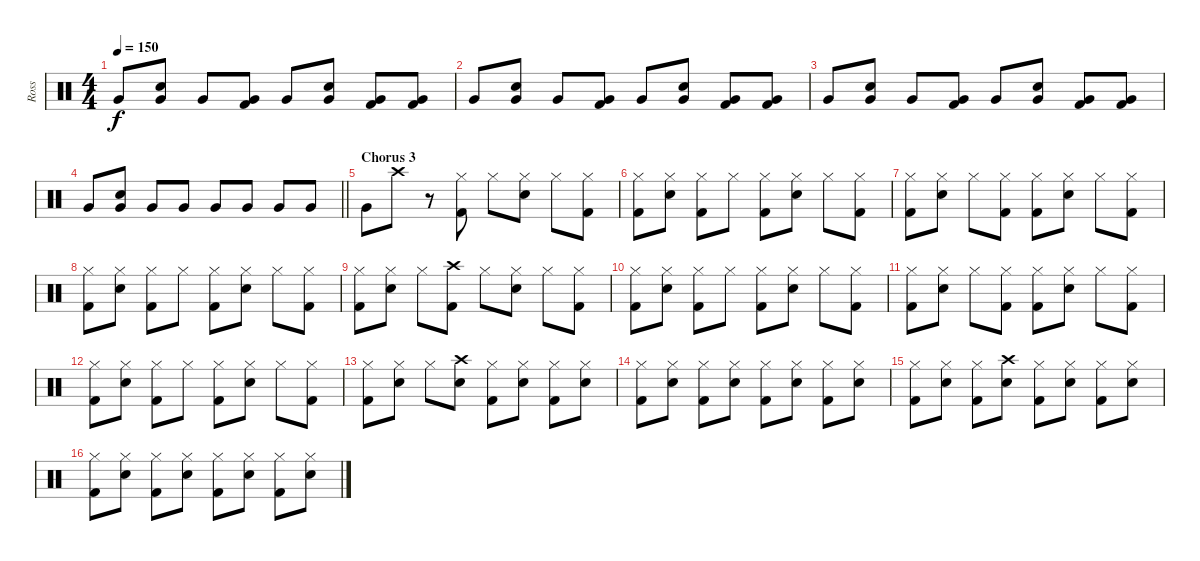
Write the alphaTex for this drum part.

\track ("Ross" "Ross") {instrument percussion}
\staff {score}
\articulation defaults
\ts (4 4)
\tempo 150
\clef neutral
\ks c "Very Low Tom (hit)".8{dy f}
("Very Low Tom (hit)" "Snare (hit) 2").8 "Very Low Tom (hit)".8 ("Very Low Tom (hit)" "Kick (hit) 2").8 "Very Low Tom (hit)".8 ("Very Low Tom (hit)" "Snare (hit) 2").8 ("Very Low Tom (hit)" "Kick (hit) 2").8 ("Very Low Tom (hit)" "Kick (hit) 2").8 |
"Very Low Tom (hit)".8 ("Very Low Tom (hit)" "Snare (hit) 2").8 "Very Low Tom (hit)".8 ("Very Low Tom (hit)" "Kick (hit) 2").8 "Very Low Tom (hit)".8 ("Very Low Tom (hit)" "Snare (hit) 2").8 ("Very Low Tom (hit)" "Kick (hit) 2").8 ("Very Low Tom (hit)" "Kick (hit) 2").8 |
"Very Low Tom (hit)".8 ("Very Low Tom (hit)" "Snare (hit) 2").8 "Very Low Tom (hit)".8 ("Very Low Tom (hit)" "Kick (hit) 2").8 "Very Low Tom (hit)".8 ("Very Low Tom (hit)" "Snare (hit) 2").8 ("Very Low Tom (hit)" "Kick (hit) 2").8 ("Very Low Tom (hit)" "Kick (hit) 2").8 |
\barLineRight lightlight "Very Low Tom (hit)".8
("Very Low Tom (hit)" "Snare (hit) 2").8 "Very Low Tom (hit)".8 "Very Low Tom (hit)".8 "Very Low Tom (hit)".8 "Very Low Tom (hit)".8 "Very Low Tom (hit)".8 "Very Low Tom (hit)".8 |
\section ("" "Chorus 3")
"Very Low Tom (hit)".8 "Crash high (hit)".8 r.8 ("Hi-Hat (closed)" "Kick (hit) 2").8 "Hi-Hat (closed)".8 ("Hi-Hat (closed)" "Snare (hit) 2").8 "Hi-Hat (closed)".8 ("Hi-Hat (closed)" "Kick (hit) 2").8 |
("Hi-Hat (closed)" "Kick (hit) 2").8 ("Hi-Hat (closed)" "Snare (hit) 2").8 ("Hi-Hat (closed)" "Kick (hit) 2").8 "Hi-Hat (closed)".8 ("Hi-Hat (closed)" "Kick (hit) 2").8 ("Hi-Hat (closed)" "Snare (hit) 2").8 "Hi-Hat (closed)".8 ("Hi-Hat (closed)" "Kick (hit) 2").8 |
("Hi-Hat (closed)" "Kick (hit) 2").8 ("Hi-Hat (closed)" "Snare (hit) 2").8 "Hi-Hat (closed)".8 ("Hi-Hat (closed)" "Kick (hit) 2").8 ("Hi-Hat (closed)" "Kick (hit) 2").8 ("Hi-Hat (closed)" "Snare (hit) 2").8 "Hi-Hat (closed)".8 ("Hi-Hat (closed)" "Kick (hit) 2").8 |
("Hi-Hat (closed)" "Kick (hit) 2").8 ("Hi-Hat (closed)" "Snare (hit) 2").8 ("Hi-Hat (closed)" "Kick (hit) 2").8 "Hi-Hat (closed)".8 ("Hi-Hat (closed)" "Kick (hit) 2").8 ("Hi-Hat (closed)" "Snare (hit) 2").8 "Hi-Hat (closed)".8 ("Hi-Hat (closed)" "Kick (hit) 2").8 |
("Hi-Hat (closed)" "Kick (hit) 2").8 ("Hi-Hat (closed)" "Snare (hit) 2").8 "Hi-Hat (closed)".8 ("Crash high (hit)" "Kick (hit) 2").8 "Hi-Hat (closed)".8 ("Hi-Hat (closed)" "Snare (hit) 2").8 "Hi-Hat (closed)".8 ("Hi-Hat (closed)" "Kick (hit) 2").8 |
("Hi-Hat (closed)" "Kick (hit) 2").8 ("Hi-Hat (closed)" "Snare (hit) 2").8 ("Hi-Hat (closed)" "Kick (hit) 2").8 "Hi-Hat (closed)".8 ("Hi-Hat (closed)" "Kick (hit) 2").8 ("Hi-Hat (closed)" "Snare (hit) 2").8 "Hi-Hat (closed)".8 ("Hi-Hat (closed)" "Kick (hit) 2").8 |
("Hi-Hat (closed)" "Kick (hit) 2").8 ("Hi-Hat (closed)" "Snare (hit) 2").8 "Hi-Hat (closed)".8 ("Hi-Hat (closed)" "Kick (hit) 2").8 ("Hi-Hat (closed)" "Kick (hit) 2").8 ("Hi-Hat (closed)" "Snare (hit) 2").8 "Hi-Hat (closed)".8 ("Hi-Hat (closed)" "Kick (hit) 2").8 |
("Hi-Hat (closed)" "Kick (hit) 2").8 ("Hi-Hat (closed)" "Snare (hit) 2").8 ("Hi-Hat (closed)" "Kick (hit) 2").8 "Hi-Hat (closed)".8 ("Hi-Hat (closed)" "Kick (hit) 2").8 ("Hi-Hat (closed)" "Snare (hit) 2").8 "Hi-Hat (closed)".8 ("Hi-Hat (closed)" "Kick (hit) 2").8 |
("Hi-Hat (closed)" "Kick (hit) 2").8 ("Hi-Hat (closed)" "Snare (hit) 2").8 "Hi-Hat (closed)".8 ("Crash high (hit)" "Snare (hit) 2").8 ("Hi-Hat (closed)" "Kick (hit) 2").8 ("Hi-Hat (closed)" "Snare (hit) 2").8 ("Hi-Hat (closed)" "Kick (hit) 2").8 ("Hi-Hat (closed)" "Snare (hit) 2").8 |
("Hi-Hat (closed)" "Kick (hit) 2").8 ("Hi-Hat (closed)" "Snare (hit) 2").8 ("Hi-Hat (closed)" "Kick (hit) 2").8 ("Hi-Hat (closed)" "Snare (hit) 2").8 ("Hi-Hat (closed)" "Kick (hit) 2").8 ("Hi-Hat (closed)" "Snare (hit) 2").8 ("Hi-Hat (closed)" "Kick (hit) 2").8 ("Hi-Hat (closed)" "Snare (hit) 2").8 |
("Hi-Hat (closed)" "Kick (hit) 2").8 ("Hi-Hat (closed)" "Snare (hit) 2").8 ("Hi-Hat (closed)" "Kick (hit) 2").8 ("Crash high (hit)" "Snare (hit) 2").8 ("Hi-Hat (closed)" "Kick (hit) 2").8 ("Hi-Hat (closed)" "Snare (hit) 2").8 ("Hi-Hat (closed)" "Kick (hit) 2").8 ("Hi-Hat (closed)" "Snare (hit) 2").8 |
("Hi-Hat (closed)" "Kick (hit) 2").8 ("Hi-Hat (closed)" "Snare (hit) 2").8 ("Hi-Hat (closed)" "Kick (hit) 2").8 ("Hi-Hat (closed)" "Snare (hit) 2").8 ("Hi-Hat (closed)" "Kick (hit) 2").8 ("Hi-Hat (closed)" "Snare (hit) 2").8 ("Hi-Hat (closed)" "Kick (hit) 2").8 ("Hi-Hat (closed)" "Snare (hit) 2").8
